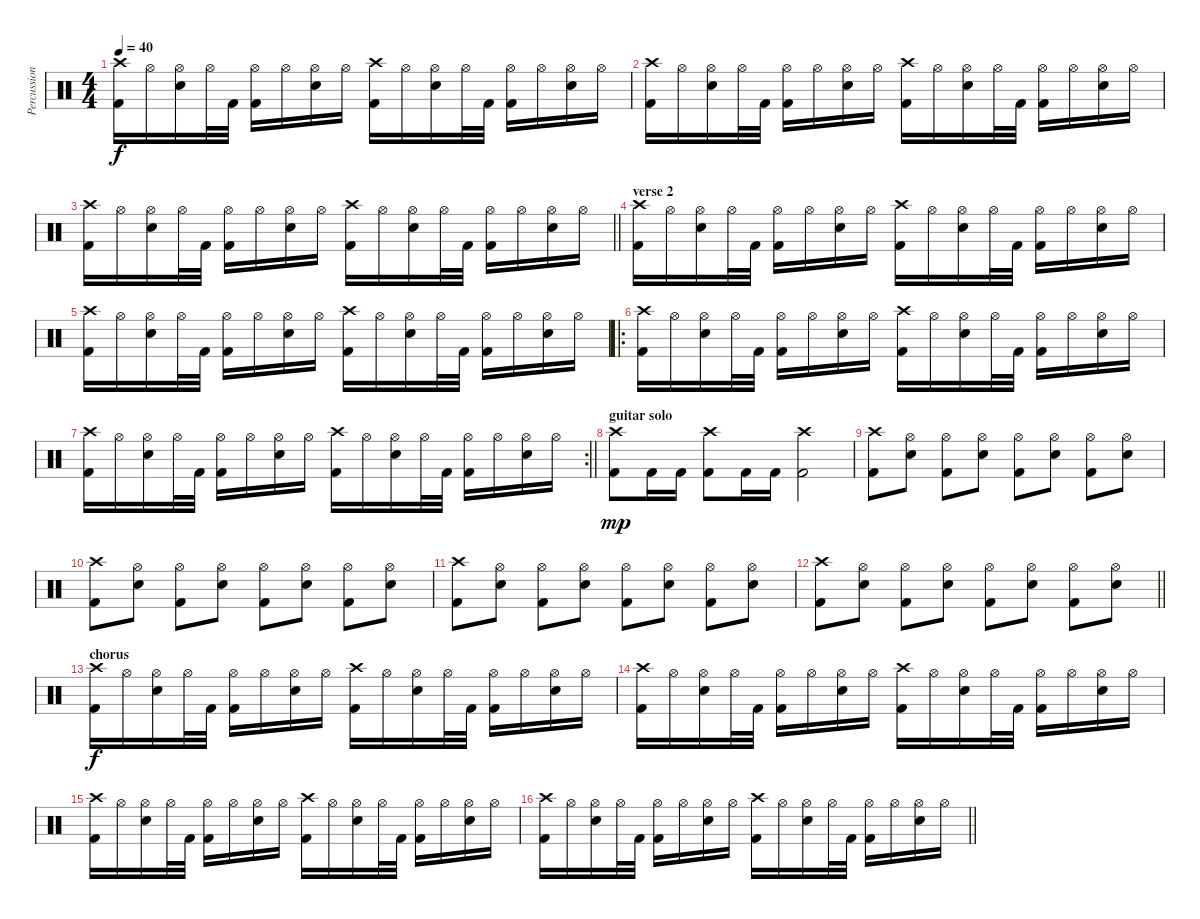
\track ("Percussion" "Percussion") {instrument percussion}
\staff {score}
\articulation defaults
\ts (4 4)
\tempo 40
\clef neutral
\ks c
("Crash high (hit)" "Kick (hit) 2").16{dy f} "Hi-Hat (open)".16 ("Hi-Hat (open)" "Snare (hit) 2").16 "Hi-Hat (open)".32 "Kick (hit) 2".32 ("Hi-Hat (open)" "Kick (hit) 2").16 "Hi-Hat (open)".16 ("Hi-Hat (open)" "Snare (hit) 2").16 "Hi-Hat (open)".16 ("Crash high (hit)" "Kick (hit) 2").16 "Hi-Hat (open)".16 ("Hi-Hat (open)" "Snare (hit) 2").16 "Hi-Hat (open)".32 "Kick (hit) 2".32 ("Hi-Hat (open)" "Kick (hit) 2").16 "Hi-Hat (open)".16 ("Hi-Hat (open)" "Snare (hit) 2").16 "Hi-Hat (open)".16 |
("Crash high (hit)" "Kick (hit) 2").16 "Hi-Hat (open)".16 ("Hi-Hat (open)" "Snare (hit) 2").16 "Hi-Hat (open)".32 "Kick (hit) 2".32 ("Hi-Hat (open)" "Kick (hit) 2").16 "Hi-Hat (open)".16 ("Hi-Hat (open)" "Snare (hit) 2").16 "Hi-Hat (open)".16 ("Crash high (hit)" "Kick (hit) 2").16 "Hi-Hat (open)".16 ("Hi-Hat (open)" "Snare (hit) 2").16 "Hi-Hat (open)".32 "Kick (hit) 2".32 ("Hi-Hat (open)" "Kick (hit) 2").16 "Hi-Hat (open)".16 ("Hi-Hat (open)" "Snare (hit) 2").16 "Hi-Hat (open)".16 |
\barLineRight lightlight
("Crash high (hit)" "Kick (hit) 2").16 "Hi-Hat (open)".16 ("Hi-Hat (open)" "Snare (hit) 2").16 "Hi-Hat (open)".32 "Kick (hit) 2".32 ("Hi-Hat (open)" "Kick (hit) 2").16 "Hi-Hat (open)".16 ("Hi-Hat (open)" "Snare (hit) 2").16 "Hi-Hat (open)".16 ("Crash high (hit)" "Kick (hit) 2").16 "Hi-Hat (open)".16 ("Hi-Hat (open)" "Snare (hit) 2").16 "Hi-Hat (open)".32 "Kick (hit) 2".32 ("Hi-Hat (open)" "Kick (hit) 2").16 "Hi-Hat (open)".16 ("Hi-Hat (open)" "Snare (hit) 2").16 "Hi-Hat (open)".16 |
\section ("" "verse 2")
("Crash high (hit)" "Kick (hit) 2").16 "Hi-Hat (open)".16 ("Hi-Hat (open)" "Snare (hit) 2").16 "Hi-Hat (open)".32 "Kick (hit) 2".32 ("Hi-Hat (open)" "Kick (hit) 2").16 "Hi-Hat (open)".16 ("Hi-Hat (open)" "Snare (hit) 2").16 "Hi-Hat (open)".16 ("Crash high (hit)" "Kick (hit) 2").16 "Hi-Hat (open)".16 ("Hi-Hat (open)" "Snare (hit) 2").16 "Hi-Hat (open)".32 "Kick (hit) 2".32 ("Hi-Hat (open)" "Kick (hit) 2").16 "Hi-Hat (open)".16 ("Hi-Hat (open)" "Snare (hit) 2").16 "Hi-Hat (open)".16 |
("Crash high (hit)" "Kick (hit) 2").16 "Hi-Hat (open)".16 ("Hi-Hat (open)" "Snare (hit) 2").16 "Hi-Hat (open)".32 "Kick (hit) 2".32 ("Hi-Hat (open)" "Kick (hit) 2").16 "Hi-Hat (open)".16 ("Hi-Hat (open)" "Snare (hit) 2").16 "Hi-Hat (open)".16 ("Crash high (hit)" "Kick (hit) 2").16 "Hi-Hat (open)".16 ("Hi-Hat (open)" "Snare (hit) 2").16 "Hi-Hat (open)".32 "Kick (hit) 2".32 ("Hi-Hat (open)" "Kick (hit) 2").16 "Hi-Hat (open)".16 ("Hi-Hat (open)" "Snare (hit) 2").16 "Hi-Hat (open)".16 |
\ro
("Crash high (hit)" "Kick (hit) 2").16 "Hi-Hat (open)".16 ("Hi-Hat (open)" "Snare (hit) 2").16 "Hi-Hat (open)".32 "Kick (hit) 2".32 ("Hi-Hat (open)" "Kick (hit) 2").16 "Hi-Hat (open)".16 ("Hi-Hat (open)" "Snare (hit) 2").16 "Hi-Hat (open)".16 ("Crash high (hit)" "Kick (hit) 2").16 "Hi-Hat (open)".16 ("Hi-Hat (open)" "Snare (hit) 2").16 "Hi-Hat (open)".32 "Kick (hit) 2".32 ("Hi-Hat (open)" "Kick (hit) 2").16 "Hi-Hat (open)".16 ("Hi-Hat (open)" "Snare (hit) 2").16 "Hi-Hat (open)".16 |
\rc 2
\barLineRight lightlight
("Crash high (hit)" "Kick (hit) 2").16 "Hi-Hat (open)".16 ("Hi-Hat (open)" "Snare (hit) 2").16 "Hi-Hat (open)".32 "Kick (hit) 2".32 ("Hi-Hat (open)" "Kick (hit) 2").16 "Hi-Hat (open)".16 ("Hi-Hat (open)" "Snare (hit) 2").16 "Hi-Hat (open)".16 ("Crash high (hit)" "Kick (hit) 2").16 "Hi-Hat (open)".16 ("Hi-Hat (open)" "Snare (hit) 2").16 "Hi-Hat (open)".32 "Kick (hit) 2".32 ("Hi-Hat (open)" "Kick (hit) 2").16 "Hi-Hat (open)".16 ("Hi-Hat (open)" "Snare (hit) 2").16 "Hi-Hat (open)".16 |
\section ("" "guitar solo")
("Crash high (hit)" "Kick (hit) 2").8{dy mp} "Kick (hit) 2".16 "Kick (hit) 2".16 ("Crash high (hit)" "Kick (hit) 2").8 "Kick (hit) 2".16 "Kick (hit) 2".16 ("Crash high (hit)" "Kick (hit) 2").2 |
("Crash high (hit)" "Kick (hit) 2").8 ("Hi-Hat (open)" "Snare (hit) 2").8 ("Hi-Hat (open)" "Kick (hit) 2").8 ("Hi-Hat (open)" "Snare (hit) 2").8 ("Hi-Hat (open)" "Kick (hit) 2").8 ("Hi-Hat (open)" "Snare (hit) 2").8 ("Hi-Hat (open)" "Kick (hit) 2").8 ("Hi-Hat (open)" "Snare (hit) 2").8 |
("Crash high (hit)" "Kick (hit) 2").8 ("Hi-Hat (open)" "Snare (hit) 2").8 ("Hi-Hat (open)" "Kick (hit) 2").8 ("Hi-Hat (open)" "Snare (hit) 2").8 ("Hi-Hat (open)" "Kick (hit) 2").8 ("Hi-Hat (open)" "Snare (hit) 2").8 ("Hi-Hat (open)" "Kick (hit) 2").8 ("Hi-Hat (open)" "Snare (hit) 2").8 |
("Crash high (hit)" "Kick (hit) 2").8 ("Hi-Hat (open)" "Snare (hit) 2").8 ("Hi-Hat (open)" "Kick (hit) 2").8 ("Hi-Hat (open)" "Snare (hit) 2").8 ("Hi-Hat (open)" "Kick (hit) 2").8 ("Hi-Hat (open)" "Snare (hit) 2").8 ("Hi-Hat (open)" "Kick (hit) 2").8 ("Hi-Hat (open)" "Snare (hit) 2").8 |
\barLineRight lightlight
("Crash high (hit)" "Kick (hit) 2").8 ("Hi-Hat (open)" "Snare (hit) 2").8 ("Hi-Hat (open)" "Kick (hit) 2").8 ("Hi-Hat (open)" "Snare (hit) 2").8 ("Hi-Hat (open)" "Kick (hit) 2").8 ("Hi-Hat (open)" "Snare (hit) 2").8 ("Hi-Hat (open)" "Kick (hit) 2").8 ("Hi-Hat (open)" "Snare (hit) 2").8 |
\section ("" "chorus")
("Crash high (hit)" "Kick (hit) 2").16{dy f} "Hi-Hat (open)".16 ("Hi-Hat (open)" "Snare (hit) 2").16 "Hi-Hat (open)".32 "Kick (hit) 2".32 ("Hi-Hat (open)" "Kick (hit) 2").16 "Hi-Hat (open)".16 ("Hi-Hat (open)" "Snare (hit) 2").16 "Hi-Hat (open)".16 ("Crash high (hit)" "Kick (hit) 2").16 "Hi-Hat (open)".16 ("Hi-Hat (open)" "Snare (hit) 2").16 "Hi-Hat (open)".32 "Kick (hit) 2".32 ("Hi-Hat (open)" "Kick (hit) 2").16 "Hi-Hat (open)".16 ("Hi-Hat (open)" "Snare (hit) 2").16 "Hi-Hat (open)".16 |
("Crash high (hit)" "Kick (hit) 2").16 "Hi-Hat (open)".16 ("Hi-Hat (open)" "Snare (hit) 2").16 "Hi-Hat (open)".32 "Kick (hit) 2".32 ("Hi-Hat (open)" "Kick (hit) 2").16 "Hi-Hat (open)".16 ("Hi-Hat (open)" "Snare (hit) 2").16 "Hi-Hat (open)".16 ("Crash high (hit)" "Kick (hit) 2").16 "Hi-Hat (open)".16 ("Hi-Hat (open)" "Snare (hit) 2").16 "Hi-Hat (open)".32 "Kick (hit) 2".32 ("Hi-Hat (open)" "Kick (hit) 2").16 "Hi-Hat (open)".16 ("Hi-Hat (open)" "Snare (hit) 2").16 "Hi-Hat (open)".16 |
("Crash high (hit)" "Kick (hit) 2").16 "Hi-Hat (open)".16 ("Hi-Hat (open)" "Snare (hit) 2").16 "Hi-Hat (open)".32 "Kick (hit) 2".32 ("Hi-Hat (open)" "Kick (hit) 2").16 "Hi-Hat (open)".16 ("Hi-Hat (open)" "Snare (hit) 2").16 "Hi-Hat (open)".16 ("Crash high (hit)" "Kick (hit) 2").16 "Hi-Hat (open)".16 ("Hi-Hat (open)" "Snare (hit) 2").16 "Hi-Hat (open)".32 "Kick (hit) 2".32 ("Hi-Hat (open)" "Kick (hit) 2").16 "Hi-Hat (open)".16 ("Hi-Hat (open)" "Snare (hit) 2").16 "Hi-Hat (open)".16 |
\barLineRight lightlight
("Crash high (hit)" "Kick (hit) 2").16 "Hi-Hat (open)".16 ("Hi-Hat (open)" "Snare (hit) 2").16 "Hi-Hat (open)".32 "Kick (hit) 2".32 ("Hi-Hat (open)" "Kick (hit) 2").16 "Hi-Hat (open)".16 ("Hi-Hat (open)" "Snare (hit) 2").16 "Hi-Hat (open)".16 ("Crash high (hit)" "Kick (hit) 2").16 "Hi-Hat (open)".16 ("Hi-Hat (open)" "Snare (hit) 2").16 "Hi-Hat (open)".32 "Kick (hit) 2".32 ("Hi-Hat (open)" "Kick (hit) 2").16 "Hi-Hat (open)".16 ("Hi-Hat (open)" "Snare (hit) 2").16 "Hi-Hat (open)".16
